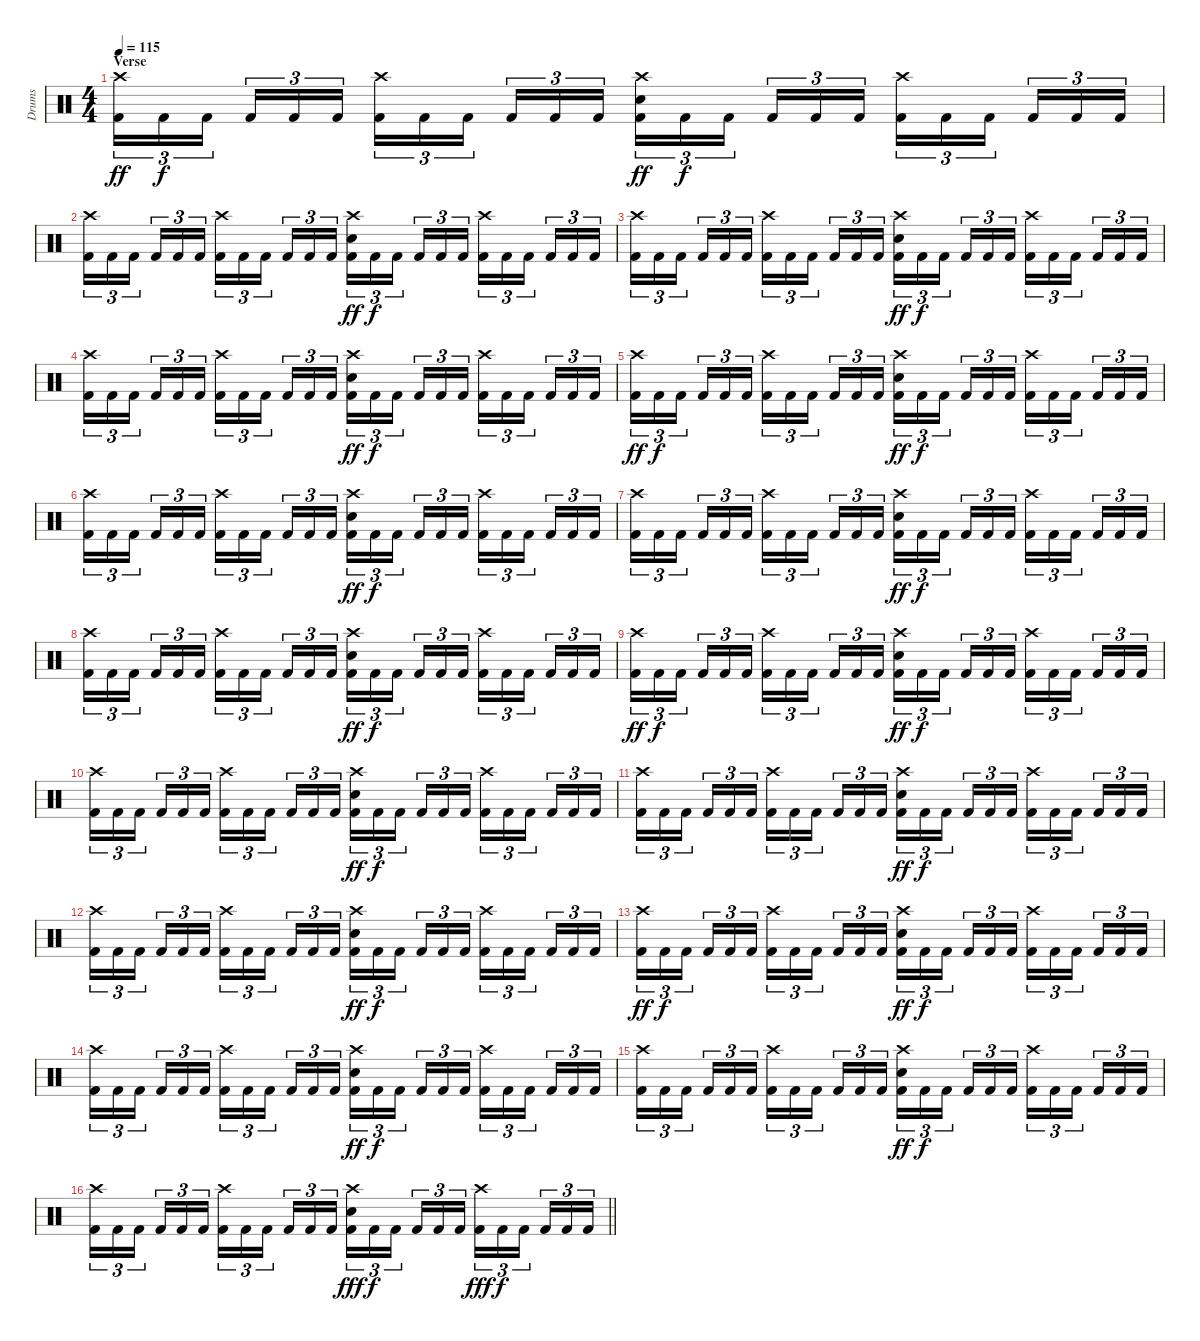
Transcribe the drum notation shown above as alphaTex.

\track ("Drums" "Drums") {instrument percussion}
\staff {score}
\articulation defaults
\ts (4 4)
\section ("" "Verse")
\tempo 115
\clef neutral
\ks c
("Crash high (hit)" "Kick (hit) 2").16{tu (3 2) dy ff} "Kick (hit) 2".16{tu (3 2) dy f} "Kick (hit) 2".16{tu (3 2) beam splitsecondary} "Kick (hit) 2".16{tu (3 2)} "Kick (hit) 2".16{tu (3 2)} "Kick (hit) 2".16{tu (3 2)} ("Crash high (hit)" "Kick (hit) 2").16{tu (3 2)} "Kick (hit) 2".16{tu (3 2)} "Kick (hit) 2".16{tu (3 2) beam splitsecondary} "Kick (hit) 2".16{tu (3 2)} "Kick (hit) 2".16{tu (3 2)} "Kick (hit) 2".16{tu (3 2)} ("Crash high (hit)" "Snare (hit) 2" "Kick (hit) 2").16{tu (3 2) dy ff} "Kick (hit) 2".16{tu (3 2) dy f} "Kick (hit) 2".16{tu (3 2) beam splitsecondary} "Kick (hit) 2".16{tu (3 2)} "Kick (hit) 2".16{tu (3 2)} "Kick (hit) 2".16{tu (3 2)} ("Crash high (hit)" "Kick (hit) 2").16{tu (3 2)} "Kick (hit) 2".16{tu (3 2)} "Kick (hit) 2".16{tu (3 2) beam splitsecondary} "Kick (hit) 2".16{tu (3 2)} "Kick (hit) 2".16{tu (3 2)} "Kick (hit) 2".16{tu (3 2)} |
("Crash high (hit)" "Kick (hit) 2").16{tu (3 2)} "Kick (hit) 2".16{tu (3 2)} "Kick (hit) 2".16{tu (3 2) beam splitsecondary} "Kick (hit) 2".16{tu (3 2)} "Kick (hit) 2".16{tu (3 2)} "Kick (hit) 2".16{tu (3 2)} ("Crash high (hit)" "Kick (hit) 2").16{tu (3 2)} "Kick (hit) 2".16{tu (3 2)} "Kick (hit) 2".16{tu (3 2) beam splitsecondary} "Kick (hit) 2".16{tu (3 2)} "Kick (hit) 2".16{tu (3 2)} "Kick (hit) 2".16{tu (3 2)} ("Crash high (hit)" "Snare (hit) 2" "Kick (hit) 2").16{tu (3 2) dy ff} "Kick (hit) 2".16{tu (3 2) dy f} "Kick (hit) 2".16{tu (3 2) beam splitsecondary} "Kick (hit) 2".16{tu (3 2)} "Kick (hit) 2".16{tu (3 2)} "Kick (hit) 2".16{tu (3 2)} ("Crash high (hit)" "Kick (hit) 2").16{tu (3 2)} "Kick (hit) 2".16{tu (3 2)} "Kick (hit) 2".16{tu (3 2) beam splitsecondary} "Kick (hit) 2".16{tu (3 2)} "Kick (hit) 2".16{tu (3 2)} "Kick (hit) 2".16{tu (3 2)} |
("Crash high (hit)" "Kick (hit) 2").16{tu (3 2)} "Kick (hit) 2".16{tu (3 2)} "Kick (hit) 2".16{tu (3 2) beam splitsecondary} "Kick (hit) 2".16{tu (3 2)} "Kick (hit) 2".16{tu (3 2)} "Kick (hit) 2".16{tu (3 2)} ("Crash high (hit)" "Kick (hit) 2").16{tu (3 2)} "Kick (hit) 2".16{tu (3 2)} "Kick (hit) 2".16{tu (3 2) beam splitsecondary} "Kick (hit) 2".16{tu (3 2)} "Kick (hit) 2".16{tu (3 2)} "Kick (hit) 2".16{tu (3 2)} ("Crash high (hit)" "Snare (hit) 2" "Kick (hit) 2").16{tu (3 2) dy ff} "Kick (hit) 2".16{tu (3 2) dy f} "Kick (hit) 2".16{tu (3 2) beam splitsecondary} "Kick (hit) 2".16{tu (3 2)} "Kick (hit) 2".16{tu (3 2)} "Kick (hit) 2".16{tu (3 2)} ("Crash high (hit)" "Kick (hit) 2").16{tu (3 2)} "Kick (hit) 2".16{tu (3 2)} "Kick (hit) 2".16{tu (3 2) beam splitsecondary} "Kick (hit) 2".16{tu (3 2)} "Kick (hit) 2".16{tu (3 2)} "Kick (hit) 2".16{tu (3 2)} |
("Crash high (hit)" "Kick (hit) 2").16{tu (3 2)} "Kick (hit) 2".16{tu (3 2)} "Kick (hit) 2".16{tu (3 2) beam splitsecondary} "Kick (hit) 2".16{tu (3 2)} "Kick (hit) 2".16{tu (3 2)} "Kick (hit) 2".16{tu (3 2)} ("Crash high (hit)" "Kick (hit) 2").16{tu (3 2)} "Kick (hit) 2".16{tu (3 2)} "Kick (hit) 2".16{tu (3 2) beam splitsecondary} "Kick (hit) 2".16{tu (3 2)} "Kick (hit) 2".16{tu (3 2)} "Kick (hit) 2".16{tu (3 2)} ("Crash high (hit)" "Snare (hit) 2" "Kick (hit) 2").16{tu (3 2) dy ff} "Kick (hit) 2".16{tu (3 2) dy f} "Kick (hit) 2".16{tu (3 2) beam splitsecondary} "Kick (hit) 2".16{tu (3 2)} "Kick (hit) 2".16{tu (3 2)} "Kick (hit) 2".16{tu (3 2)} ("Crash high (hit)" "Kick (hit) 2").16{tu (3 2)} "Kick (hit) 2".16{tu (3 2)} "Kick (hit) 2".16{tu (3 2) beam splitsecondary} "Kick (hit) 2".16{tu (3 2)} "Kick (hit) 2".16{tu (3 2)} "Kick (hit) 2".16{tu (3 2)} |
("Crash high (hit)" "Kick (hit) 2").16{tu (3 2) dy ff} "Kick (hit) 2".16{tu (3 2) dy f} "Kick (hit) 2".16{tu (3 2) beam splitsecondary} "Kick (hit) 2".16{tu (3 2)} "Kick (hit) 2".16{tu (3 2)} "Kick (hit) 2".16{tu (3 2)} ("Crash high (hit)" "Kick (hit) 2").16{tu (3 2)} "Kick (hit) 2".16{tu (3 2)} "Kick (hit) 2".16{tu (3 2) beam splitsecondary} "Kick (hit) 2".16{tu (3 2)} "Kick (hit) 2".16{tu (3 2)} "Kick (hit) 2".16{tu (3 2)} ("Crash high (hit)" "Snare (hit) 2" "Kick (hit) 2").16{tu (3 2) dy ff} "Kick (hit) 2".16{tu (3 2) dy f} "Kick (hit) 2".16{tu (3 2) beam splitsecondary} "Kick (hit) 2".16{tu (3 2)} "Kick (hit) 2".16{tu (3 2)} "Kick (hit) 2".16{tu (3 2)} ("Crash high (hit)" "Kick (hit) 2").16{tu (3 2)} "Kick (hit) 2".16{tu (3 2)} "Kick (hit) 2".16{tu (3 2) beam splitsecondary} "Kick (hit) 2".16{tu (3 2)} "Kick (hit) 2".16{tu (3 2)} "Kick (hit) 2".16{tu (3 2)} |
("Crash high (hit)" "Kick (hit) 2").16{tu (3 2)} "Kick (hit) 2".16{tu (3 2)} "Kick (hit) 2".16{tu (3 2) beam splitsecondary} "Kick (hit) 2".16{tu (3 2)} "Kick (hit) 2".16{tu (3 2)} "Kick (hit) 2".16{tu (3 2)} ("Crash high (hit)" "Kick (hit) 2").16{tu (3 2)} "Kick (hit) 2".16{tu (3 2)} "Kick (hit) 2".16{tu (3 2) beam splitsecondary} "Kick (hit) 2".16{tu (3 2)} "Kick (hit) 2".16{tu (3 2)} "Kick (hit) 2".16{tu (3 2)} ("Crash high (hit)" "Snare (hit) 2" "Kick (hit) 2").16{tu (3 2) dy ff} "Kick (hit) 2".16{tu (3 2) dy f} "Kick (hit) 2".16{tu (3 2) beam splitsecondary} "Kick (hit) 2".16{tu (3 2)} "Kick (hit) 2".16{tu (3 2)} "Kick (hit) 2".16{tu (3 2)} ("Crash high (hit)" "Kick (hit) 2").16{tu (3 2)} "Kick (hit) 2".16{tu (3 2)} "Kick (hit) 2".16{tu (3 2) beam splitsecondary} "Kick (hit) 2".16{tu (3 2)} "Kick (hit) 2".16{tu (3 2)} "Kick (hit) 2".16{tu (3 2)} |
("Crash high (hit)" "Kick (hit) 2").16{tu (3 2)} "Kick (hit) 2".16{tu (3 2)} "Kick (hit) 2".16{tu (3 2) beam splitsecondary} "Kick (hit) 2".16{tu (3 2)} "Kick (hit) 2".16{tu (3 2)} "Kick (hit) 2".16{tu (3 2)} ("Crash high (hit)" "Kick (hit) 2").16{tu (3 2)} "Kick (hit) 2".16{tu (3 2)} "Kick (hit) 2".16{tu (3 2) beam splitsecondary} "Kick (hit) 2".16{tu (3 2)} "Kick (hit) 2".16{tu (3 2)} "Kick (hit) 2".16{tu (3 2)} ("Crash high (hit)" "Snare (hit) 2" "Kick (hit) 2").16{tu (3 2) dy ff} "Kick (hit) 2".16{tu (3 2) dy f} "Kick (hit) 2".16{tu (3 2) beam splitsecondary} "Kick (hit) 2".16{tu (3 2)} "Kick (hit) 2".16{tu (3 2)} "Kick (hit) 2".16{tu (3 2)} ("Crash high (hit)" "Kick (hit) 2").16{tu (3 2)} "Kick (hit) 2".16{tu (3 2)} "Kick (hit) 2".16{tu (3 2) beam splitsecondary} "Kick (hit) 2".16{tu (3 2)} "Kick (hit) 2".16{tu (3 2)} "Kick (hit) 2".16{tu (3 2)} |
("Crash high (hit)" "Kick (hit) 2").16{tu (3 2)} "Kick (hit) 2".16{tu (3 2)} "Kick (hit) 2".16{tu (3 2) beam splitsecondary} "Kick (hit) 2".16{tu (3 2)} "Kick (hit) 2".16{tu (3 2)} "Kick (hit) 2".16{tu (3 2)} ("Crash high (hit)" "Kick (hit) 2").16{tu (3 2)} "Kick (hit) 2".16{tu (3 2)} "Kick (hit) 2".16{tu (3 2) beam splitsecondary} "Kick (hit) 2".16{tu (3 2)} "Kick (hit) 2".16{tu (3 2)} "Kick (hit) 2".16{tu (3 2)} ("Crash high (hit)" "Snare (hit) 2" "Kick (hit) 2").16{tu (3 2) dy ff} "Kick (hit) 2".16{tu (3 2) dy f} "Kick (hit) 2".16{tu (3 2) beam splitsecondary} "Kick (hit) 2".16{tu (3 2)} "Kick (hit) 2".16{tu (3 2)} "Kick (hit) 2".16{tu (3 2)} ("Crash high (hit)" "Kick (hit) 2").16{tu (3 2)} "Kick (hit) 2".16{tu (3 2)} "Kick (hit) 2".16{tu (3 2) beam splitsecondary} "Kick (hit) 2".16{tu (3 2)} "Kick (hit) 2".16{tu (3 2)} "Kick (hit) 2".16{tu (3 2)} |
("Crash high (hit)" "Kick (hit) 2").16{tu (3 2) dy ff} "Kick (hit) 2".16{tu (3 2) dy f} "Kick (hit) 2".16{tu (3 2) beam splitsecondary} "Kick (hit) 2".16{tu (3 2)} "Kick (hit) 2".16{tu (3 2)} "Kick (hit) 2".16{tu (3 2)} ("Crash high (hit)" "Kick (hit) 2").16{tu (3 2)} "Kick (hit) 2".16{tu (3 2)} "Kick (hit) 2".16{tu (3 2) beam splitsecondary} "Kick (hit) 2".16{tu (3 2)} "Kick (hit) 2".16{tu (3 2)} "Kick (hit) 2".16{tu (3 2)} ("Crash high (hit)" "Snare (hit) 2" "Kick (hit) 2").16{tu (3 2) dy ff} "Kick (hit) 2".16{tu (3 2) dy f} "Kick (hit) 2".16{tu (3 2) beam splitsecondary} "Kick (hit) 2".16{tu (3 2)} "Kick (hit) 2".16{tu (3 2)} "Kick (hit) 2".16{tu (3 2)} ("Crash high (hit)" "Kick (hit) 2").16{tu (3 2)} "Kick (hit) 2".16{tu (3 2)} "Kick (hit) 2".16{tu (3 2) beam splitsecondary} "Kick (hit) 2".16{tu (3 2)} "Kick (hit) 2".16{tu (3 2)} "Kick (hit) 2".16{tu (3 2)} |
("Crash high (hit)" "Kick (hit) 2").16{tu (3 2)} "Kick (hit) 2".16{tu (3 2)} "Kick (hit) 2".16{tu (3 2) beam splitsecondary} "Kick (hit) 2".16{tu (3 2)} "Kick (hit) 2".16{tu (3 2)} "Kick (hit) 2".16{tu (3 2)} ("Crash high (hit)" "Kick (hit) 2").16{tu (3 2)} "Kick (hit) 2".16{tu (3 2)} "Kick (hit) 2".16{tu (3 2) beam splitsecondary} "Kick (hit) 2".16{tu (3 2)} "Kick (hit) 2".16{tu (3 2)} "Kick (hit) 2".16{tu (3 2)} ("Crash high (hit)" "Snare (hit) 2" "Kick (hit) 2").16{tu (3 2) dy ff} "Kick (hit) 2".16{tu (3 2) dy f} "Kick (hit) 2".16{tu (3 2) beam splitsecondary} "Kick (hit) 2".16{tu (3 2)} "Kick (hit) 2".16{tu (3 2)} "Kick (hit) 2".16{tu (3 2)} ("Crash high (hit)" "Kick (hit) 2").16{tu (3 2)} "Kick (hit) 2".16{tu (3 2)} "Kick (hit) 2".16{tu (3 2) beam splitsecondary} "Kick (hit) 2".16{tu (3 2)} "Kick (hit) 2".16{tu (3 2)} "Kick (hit) 2".16{tu (3 2)} |
("Crash high (hit)" "Kick (hit) 2").16{tu (3 2)} "Kick (hit) 2".16{tu (3 2)} "Kick (hit) 2".16{tu (3 2) beam splitsecondary} "Kick (hit) 2".16{tu (3 2)} "Kick (hit) 2".16{tu (3 2)} "Kick (hit) 2".16{tu (3 2)} ("Crash high (hit)" "Kick (hit) 2").16{tu (3 2)} "Kick (hit) 2".16{tu (3 2)} "Kick (hit) 2".16{tu (3 2) beam splitsecondary} "Kick (hit) 2".16{tu (3 2)} "Kick (hit) 2".16{tu (3 2)} "Kick (hit) 2".16{tu (3 2)} ("Crash high (hit)" "Snare (hit) 2" "Kick (hit) 2").16{tu (3 2) dy ff} "Kick (hit) 2".16{tu (3 2) dy f} "Kick (hit) 2".16{tu (3 2) beam splitsecondary} "Kick (hit) 2".16{tu (3 2)} "Kick (hit) 2".16{tu (3 2)} "Kick (hit) 2".16{tu (3 2)} ("Crash high (hit)" "Kick (hit) 2").16{tu (3 2)} "Kick (hit) 2".16{tu (3 2)} "Kick (hit) 2".16{tu (3 2) beam splitsecondary} "Kick (hit) 2".16{tu (3 2)} "Kick (hit) 2".16{tu (3 2)} "Kick (hit) 2".16{tu (3 2)} |
("Crash high (hit)" "Kick (hit) 2").16{tu (3 2)} "Kick (hit) 2".16{tu (3 2)} "Kick (hit) 2".16{tu (3 2) beam splitsecondary} "Kick (hit) 2".16{tu (3 2)} "Kick (hit) 2".16{tu (3 2)} "Kick (hit) 2".16{tu (3 2)} ("Crash high (hit)" "Kick (hit) 2").16{tu (3 2)} "Kick (hit) 2".16{tu (3 2)} "Kick (hit) 2".16{tu (3 2) beam splitsecondary} "Kick (hit) 2".16{tu (3 2)} "Kick (hit) 2".16{tu (3 2)} "Kick (hit) 2".16{tu (3 2)} ("Crash high (hit)" "Snare (hit) 2" "Kick (hit) 2").16{tu (3 2) dy ff} "Kick (hit) 2".16{tu (3 2) dy f} "Kick (hit) 2".16{tu (3 2) beam splitsecondary} "Kick (hit) 2".16{tu (3 2)} "Kick (hit) 2".16{tu (3 2)} "Kick (hit) 2".16{tu (3 2)} ("Crash high (hit)" "Kick (hit) 2").16{tu (3 2)} "Kick (hit) 2".16{tu (3 2)} "Kick (hit) 2".16{tu (3 2) beam splitsecondary} "Kick (hit) 2".16{tu (3 2)} "Kick (hit) 2".16{tu (3 2)} "Kick (hit) 2".16{tu (3 2)} |
("Crash high (hit)" "Kick (hit) 2").16{tu (3 2) dy ff} "Kick (hit) 2".16{tu (3 2) dy f} "Kick (hit) 2".16{tu (3 2) beam splitsecondary} "Kick (hit) 2".16{tu (3 2)} "Kick (hit) 2".16{tu (3 2)} "Kick (hit) 2".16{tu (3 2)} ("Crash high (hit)" "Kick (hit) 2").16{tu (3 2)} "Kick (hit) 2".16{tu (3 2)} "Kick (hit) 2".16{tu (3 2) beam splitsecondary} "Kick (hit) 2".16{tu (3 2)} "Kick (hit) 2".16{tu (3 2)} "Kick (hit) 2".16{tu (3 2)} ("Crash high (hit)" "Snare (hit) 2" "Kick (hit) 2").16{tu (3 2) dy ff} "Kick (hit) 2".16{tu (3 2) dy f} "Kick (hit) 2".16{tu (3 2) beam splitsecondary} "Kick (hit) 2".16{tu (3 2)} "Kick (hit) 2".16{tu (3 2)} "Kick (hit) 2".16{tu (3 2)} ("Crash high (hit)" "Kick (hit) 2").16{tu (3 2)} "Kick (hit) 2".16{tu (3 2)} "Kick (hit) 2".16{tu (3 2) beam splitsecondary} "Kick (hit) 2".16{tu (3 2)} "Kick (hit) 2".16{tu (3 2)} "Kick (hit) 2".16{tu (3 2)} |
("Crash high (hit)" "Kick (hit) 2").16{tu (3 2)} "Kick (hit) 2".16{tu (3 2)} "Kick (hit) 2".16{tu (3 2) beam splitsecondary} "Kick (hit) 2".16{tu (3 2)} "Kick (hit) 2".16{tu (3 2)} "Kick (hit) 2".16{tu (3 2)} ("Crash high (hit)" "Kick (hit) 2").16{tu (3 2)} "Kick (hit) 2".16{tu (3 2)} "Kick (hit) 2".16{tu (3 2) beam splitsecondary} "Kick (hit) 2".16{tu (3 2)} "Kick (hit) 2".16{tu (3 2)} "Kick (hit) 2".16{tu (3 2)} ("Crash high (hit)" "Snare (hit) 2" "Kick (hit) 2").16{tu (3 2) dy ff} "Kick (hit) 2".16{tu (3 2) dy f} "Kick (hit) 2".16{tu (3 2) beam splitsecondary} "Kick (hit) 2".16{tu (3 2)} "Kick (hit) 2".16{tu (3 2)} "Kick (hit) 2".16{tu (3 2)} ("Crash high (hit)" "Kick (hit) 2").16{tu (3 2)} "Kick (hit) 2".16{tu (3 2)} "Kick (hit) 2".16{tu (3 2) beam splitsecondary} "Kick (hit) 2".16{tu (3 2)} "Kick (hit) 2".16{tu (3 2)} "Kick (hit) 2".16{tu (3 2)} |
("Crash high (hit)" "Kick (hit) 2").16{tu (3 2)} "Kick (hit) 2".16{tu (3 2)} "Kick (hit) 2".16{tu (3 2) beam splitsecondary} "Kick (hit) 2".16{tu (3 2)} "Kick (hit) 2".16{tu (3 2)} "Kick (hit) 2".16{tu (3 2)} ("Crash high (hit)" "Kick (hit) 2").16{tu (3 2)} "Kick (hit) 2".16{tu (3 2)} "Kick (hit) 2".16{tu (3 2) beam splitsecondary} "Kick (hit) 2".16{tu (3 2)} "Kick (hit) 2".16{tu (3 2)} "Kick (hit) 2".16{tu (3 2)} ("Crash high (hit)" "Snare (hit) 2" "Kick (hit) 2").16{tu (3 2) dy ff} "Kick (hit) 2".16{tu (3 2) dy f} "Kick (hit) 2".16{tu (3 2) beam splitsecondary} "Kick (hit) 2".16{tu (3 2)} "Kick (hit) 2".16{tu (3 2)} "Kick (hit) 2".16{tu (3 2)} ("Crash high (hit)" "Kick (hit) 2").16{tu (3 2)} "Kick (hit) 2".16{tu (3 2)} "Kick (hit) 2".16{tu (3 2) beam splitsecondary} "Kick (hit) 2".16{tu (3 2)} "Kick (hit) 2".16{tu (3 2)} "Kick (hit) 2".16{tu (3 2)} |
\barLineRight lightlight
("Crash high (hit)" "Kick (hit) 2").16{tu (3 2)} "Kick (hit) 2".16{tu (3 2)} "Kick (hit) 2".16{tu (3 2) beam splitsecondary} "Kick (hit) 2".16{tu (3 2)} "Kick (hit) 2".16{tu (3 2)} "Kick (hit) 2".16{tu (3 2)} ("Crash high (hit)" "Kick (hit) 2").16{tu (3 2)} "Kick (hit) 2".16{tu (3 2)} "Kick (hit) 2".16{tu (3 2) beam splitsecondary} "Kick (hit) 2".16{tu (3 2)} "Kick (hit) 2".16{tu (3 2)} "Kick (hit) 2".16{tu (3 2)} ("Crash high (hit)" "Snare (hit) 2" "Kick (hit) 2").16{tu (3 2) dy fff} "Kick (hit) 2".16{tu (3 2) dy f} "Kick (hit) 2".16{tu (3 2) beam splitsecondary} "Kick (hit) 2".16{tu (3 2)} "Kick (hit) 2".16{tu (3 2)} "Kick (hit) 2".16{tu (3 2)} ("Crash high (hit)" "Kick (hit) 2").16{tu (3 2) dy fff} "Kick (hit) 2".16{tu (3 2) dy f} "Kick (hit) 2".16{tu (3 2) beam splitsecondary} "Kick (hit) 2".16{tu (3 2)} "Kick (hit) 2".16{tu (3 2)} "Kick (hit) 2".16{tu (3 2)}
